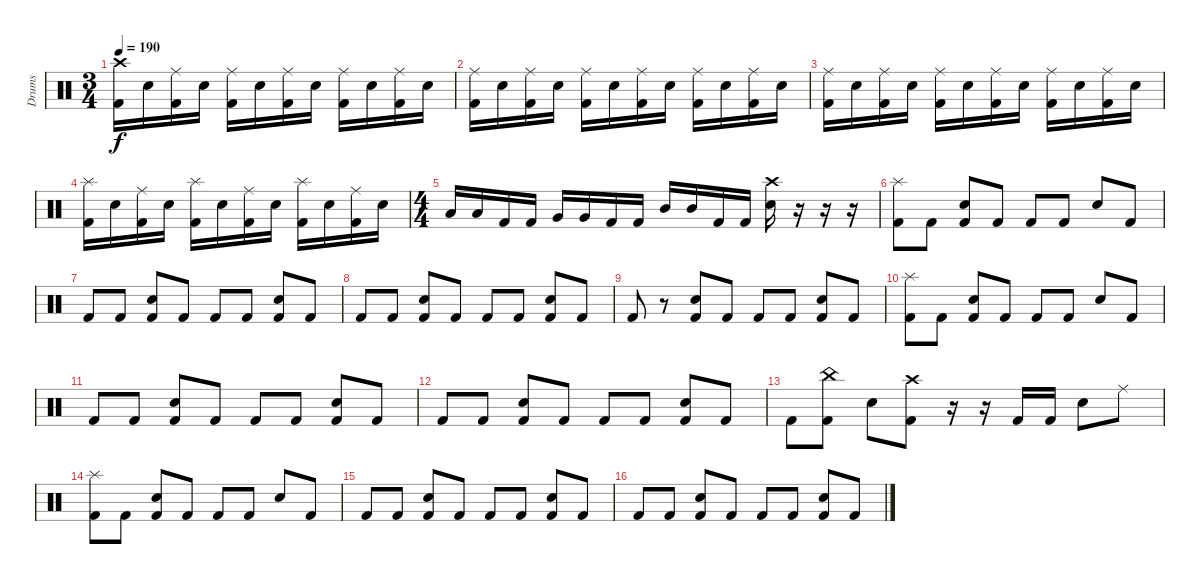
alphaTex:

\track ("Drums" "Drums") {instrument percussion}
\staff {score}
\articulation defaults
\ts (3 4)
\tempo 190
\clef neutral
\ks c
("Crash high (hit)" "Kick (hit) 2").16{dy f} "Snare (hit) 2".16 ("Ride (middle)" "Kick (hit) 2").16 "Snare (hit) 2".16 ("Ride (middle)" "Kick (hit) 2").16 "Snare (hit) 2".16 ("Ride (middle)" "Kick (hit) 2").16 "Snare (hit) 2".16 ("Ride (middle)" "Kick (hit) 2").16 "Snare (hit) 2".16 ("Ride (middle)" "Kick (hit) 2").16 "Snare (hit) 2".16 |
("Ride (middle)" "Kick (hit) 2").16 "Snare (hit) 2".16 ("Ride (middle)" "Kick (hit) 2").16 "Snare (hit) 2".16 ("Ride (middle)" "Kick (hit) 2").16 "Snare (hit) 2".16 ("Ride (middle)" "Kick (hit) 2").16 "Snare (hit) 2".16 ("Ride (middle)" "Kick (hit) 2").16 "Snare (hit) 2".16 ("Ride (middle)" "Kick (hit) 2").16 "Snare (hit) 2".16 |
("Ride (middle)" "Kick (hit) 2").16 "Snare (hit) 2".16 ("Ride (middle)" "Kick (hit) 2").16 "Snare (hit) 2".16 ("Ride (middle)" "Kick (hit) 2").16 "Snare (hit) 2".16 ("Ride (middle)" "Kick (hit) 2").16 "Snare (hit) 2".16 ("Ride (middle)" "Kick (hit) 2").16 "Snare (hit) 2".16 ("Ride (middle)" "Kick (hit) 2").16 "Snare (hit) 2".16 |
("Splash (hit)" "Kick (hit) 2").16 "Snare (hit) 2".16 ("Ride (middle)" "Kick (hit) 2").16 "Snare (hit) 2".16 ("Splash (hit)" "Kick (hit) 2").16 "Snare (hit) 2".16 ("Ride (middle)" "Kick (hit) 2").16 "Snare (hit) 2".16 ("Splash (hit)" "Kick (hit) 2").16 "Snare (hit) 2".16 ("Ride (middle)" "Kick (hit) 2").16 "Snare (hit) 2".16 |
\ts (4 4)
"Low Tom (hit)".16 "Low Tom (hit)".16 "Kick (hit) 2".16 "Kick (hit) 2".16 "Very Low Tom (hit)".16 "Very Low Tom (hit)".16 "Kick (hit) 2".16 "Kick (hit) 2".16 "Mid Tom (hit)".16 "Mid Tom (hit)".16 "Kick (hit) 2".16 "Kick (hit) 2".16 ("Crash high (hit)" "Snare (hit) 2").16 r.16 r.16 r.16 |
("Splash (hit)" "Kick (hit) 2").8 "Kick (hit) 2".8 ("Snare (hit) 2" "Kick (hit) 2").8 "Kick (hit) 2".8 "Kick (hit) 2".8 "Kick (hit) 2".8 "Snare (hit) 2".8 "Kick (hit) 2".8 |
"Kick (hit) 2".8 "Kick (hit) 2".8 ("Snare (hit) 2" "Kick (hit) 2").8 "Kick (hit) 2".8 "Kick (hit) 2".8 "Kick (hit) 2".8 ("Snare (hit) 2" "Kick (hit) 2").8 "Kick (hit) 2".8 |
"Kick (hit) 2".8 "Kick (hit) 2".8 ("Snare (hit) 2" "Kick (hit) 2").8 "Kick (hit) 2".8 "Kick (hit) 2".8 "Kick (hit) 2".8 ("Snare (hit) 2" "Kick (hit) 2").8 "Kick (hit) 2".8 |
"Kick (hit) 2".8 r.8 ("Snare (hit) 2" "Kick (hit) 2").8 "Kick (hit) 2".8 "Kick (hit) 2".8 "Kick (hit) 2".8 ("Snare (hit) 2" "Kick (hit) 2").8 "Kick (hit) 2".8 |
("Splash (hit)" "Kick (hit) 2").8 "Kick (hit) 2".8 ("Snare (hit) 2" "Kick (hit) 2").8 "Kick (hit) 2".8 "Kick (hit) 2".8 "Kick (hit) 2".8 "Snare (hit) 2".8 "Kick (hit) 2".8 |
"Kick (hit) 2".8 "Kick (hit) 2".8 ("Snare (hit) 2" "Kick (hit) 2").8 "Kick (hit) 2".8 "Kick (hit) 2".8 "Kick (hit) 2".8 ("Snare (hit) 2" "Kick (hit) 2").8 "Kick (hit) 2".8 |
"Kick (hit) 2".8 "Kick (hit) 2".8 ("Snare (hit) 2" "Kick (hit) 2").8 "Kick (hit) 2".8 "Kick (hit) 2".8 "Kick (hit) 2".8 ("Snare (hit) 2" "Kick (hit) 2").8 "Kick (hit) 2".8 |
"Kick (hit) 2".8 ("China (hit)" "Kick (hit) 2").8 "Snare (hit) 2".8 ("Crash high (hit)" "Kick (hit) 2").8 r.16 r.16 "Kick (hit) 2".16 "Kick (hit) 2".16 "Snare (hit) 2".8 "Ride (middle)".8 |
("Splash (hit)" "Kick (hit) 2").8 "Kick (hit) 2".8 ("Snare (hit) 2" "Kick (hit) 2").8 "Kick (hit) 2".8 "Kick (hit) 2".8 "Kick (hit) 2".8 "Snare (hit) 2".8 "Kick (hit) 2".8 |
"Kick (hit) 2".8 "Kick (hit) 2".8 ("Snare (hit) 2" "Kick (hit) 2").8 "Kick (hit) 2".8 "Kick (hit) 2".8 "Kick (hit) 2".8 ("Snare (hit) 2" "Kick (hit) 2").8 "Kick (hit) 2".8 |
"Kick (hit) 2".8 "Kick (hit) 2".8 ("Snare (hit) 2" "Kick (hit) 2").8 "Kick (hit) 2".8 "Kick (hit) 2".8 "Kick (hit) 2".8 ("Snare (hit) 2" "Kick (hit) 2").8 "Kick (hit) 2".8
